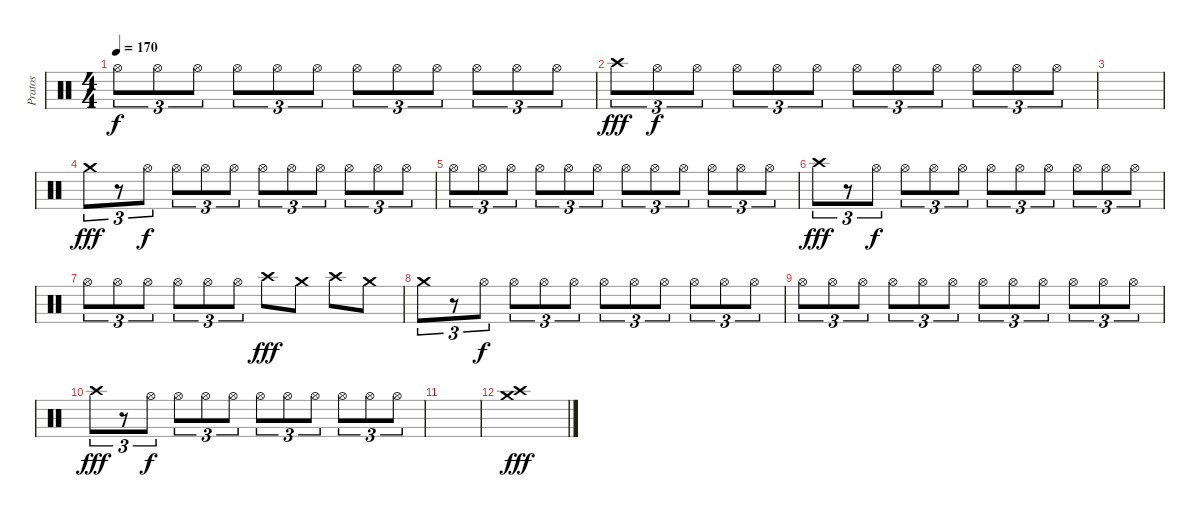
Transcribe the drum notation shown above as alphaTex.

\track ("Pratos" "Pratos") {instrument percussion}
\staff {score}
\articulation defaults
\ts (4 4)
\tempo 170
\clef neutral
\ks c "Hi-Hat (open)".8{tu (3 2) dy f} "Hi-Hat (open)".8{tu (3 2)} "Hi-Hat (open)".8{tu (3 2)} "Hi-Hat (open)".8{tu (3 2)} "Hi-Hat (open)".8{tu (3 2)} "Hi-Hat (open)".8{tu (3 2)} "Hi-Hat (open)".8{tu (3 2)} "Hi-Hat (open)".8{tu (3 2)} "Hi-Hat (open)".8{tu (3 2)} "Hi-Hat (open)".8{tu (3 2)} "Hi-Hat (open)".8{tu (3 2)} "Hi-Hat (open)".8{tu (3 2)}
|
"Crash high (hit)".8{tu (3 2) dy fff} "Hi-Hat (open)".8{tu (3 2) dy f} "Hi-Hat (open)".8{tu (3 2)} "Hi-Hat (open)".8{tu (3 2)} "Hi-Hat (open)".8{tu (3 2)} "Hi-Hat (open)".8{tu (3 2)} "Hi-Hat (open)".8{tu (3 2)} "Hi-Hat (open)".8{tu (3 2)} "Hi-Hat (open)".8{tu (3 2)} "Hi-Hat (open)".8{tu (3 2)} "Hi-Hat (open)".8{tu (3 2)} "Hi-Hat (open)".8{tu (3 2)} |
|
"Crash medium (hit)".8{tu (3 2) dy fff} r.8{tu (3 2)} "Hi-Hat (open)".8{tu (3 2) dy f} "Hi-Hat (open)".8{tu (3 2)} "Hi-Hat (open)".8{tu (3 2)} "Hi-Hat (open)".8{tu (3 2)} "Hi-Hat (open)".8{tu (3 2)} "Hi-Hat (open)".8{tu (3 2)} "Hi-Hat (open)".8{tu (3 2)} "Hi-Hat (open)".8{tu (3 2)} "Hi-Hat (open)".8{tu (3 2)} "Hi-Hat (open)".8{tu (3 2)} |
"Hi-Hat (open)".8{tu (3 2)} "Hi-Hat (open)".8{tu (3 2)} "Hi-Hat (open)".8{tu (3 2)} "Hi-Hat (open)".8{tu (3 2)} "Hi-Hat (open)".8{tu (3 2)} "Hi-Hat (open)".8{tu (3 2)} "Hi-Hat (open)".8{tu (3 2)} "Hi-Hat (open)".8{tu (3 2)} "Hi-Hat (open)".8{tu (3 2)} "Hi-Hat (open)".8{tu (3 2)} "Hi-Hat (open)".8{tu (3 2)} "Hi-Hat (open)".8{tu (3 2)} |
"Crash high (hit)".8{tu (3 2) dy fff} r.8{tu (3 2)} "Hi-Hat (open)".8{tu (3 2) dy f} "Hi-Hat (open)".8{tu (3 2)} "Hi-Hat (open)".8{tu (3 2)} "Hi-Hat (open)".8{tu (3 2)} "Hi-Hat (open)".8{tu (3 2)} "Hi-Hat (open)".8{tu (3 2)} "Hi-Hat (open)".8{tu (3 2)} "Hi-Hat (open)".8{tu (3 2)} "Hi-Hat (open)".8{tu (3 2)} "Hi-Hat (open)".8{tu (3 2)} |
"Hi-Hat (open)".8{tu (3 2)} "Hi-Hat (open)".8{tu (3 2)} "Hi-Hat (open)".8{tu (3 2)} "Hi-Hat (open)".8{tu (3 2)} "Hi-Hat (open)".8{tu (3 2)} "Hi-Hat (open)".8{tu (3 2)} "Crash high (hit)".8{dy fff} "Crash medium (hit)".8 "Crash high (hit)".8 "Crash medium (hit)".8 |
"Crash medium (hit)".8{tu (3 2)} r.8{tu (3 2)} "Hi-Hat (open)".8{tu (3 2) dy f} "Hi-Hat (open)".8{tu (3 2)} "Hi-Hat (open)".8{tu (3 2)} "Hi-Hat (open)".8{tu (3 2)} "Hi-Hat (open)".8{tu (3 2)} "Hi-Hat (open)".8{tu (3 2)} "Hi-Hat (open)".8{tu (3 2)} "Hi-Hat (open)".8{tu (3 2)} "Hi-Hat (open)".8{tu (3 2)} "Hi-Hat (open)".8{tu (3 2)} |
"Hi-Hat (open)".8{tu (3 2)} "Hi-Hat (open)".8{tu (3 2)} "Hi-Hat (open)".8{tu (3 2)} "Hi-Hat (open)".8{tu (3 2)} "Hi-Hat (open)".8{tu (3 2)} "Hi-Hat (open)".8{tu (3 2)} "Hi-Hat (open)".8{tu (3 2)} "Hi-Hat (open)".8{tu (3 2)} "Hi-Hat (open)".8{tu (3 2)} "Hi-Hat (open)".8{tu (3 2)} "Hi-Hat (open)".8{tu (3 2)} "Hi-Hat (open)".8{tu (3 2)} |
"Crash high (hit)".8{tu (3 2) dy fff} r.8{tu (3 2)} "Hi-Hat (open)".8{tu (3 2) dy f} "Hi-Hat (open)".8{tu (3 2)} "Hi-Hat (open)".8{tu (3 2)} "Hi-Hat (open)".8{tu (3 2)} "Hi-Hat (open)".8{tu (3 2)} "Hi-Hat (open)".8{tu (3 2)} "Hi-Hat (open)".8{tu (3 2)} "Hi-Hat (open)".8{tu (3 2)} "Hi-Hat (open)".8{tu (3 2)} "Hi-Hat (open)".8{tu (3 2)} |
|
("Crash high (hit)" "Crash medium (hit)").1{dy fff}
